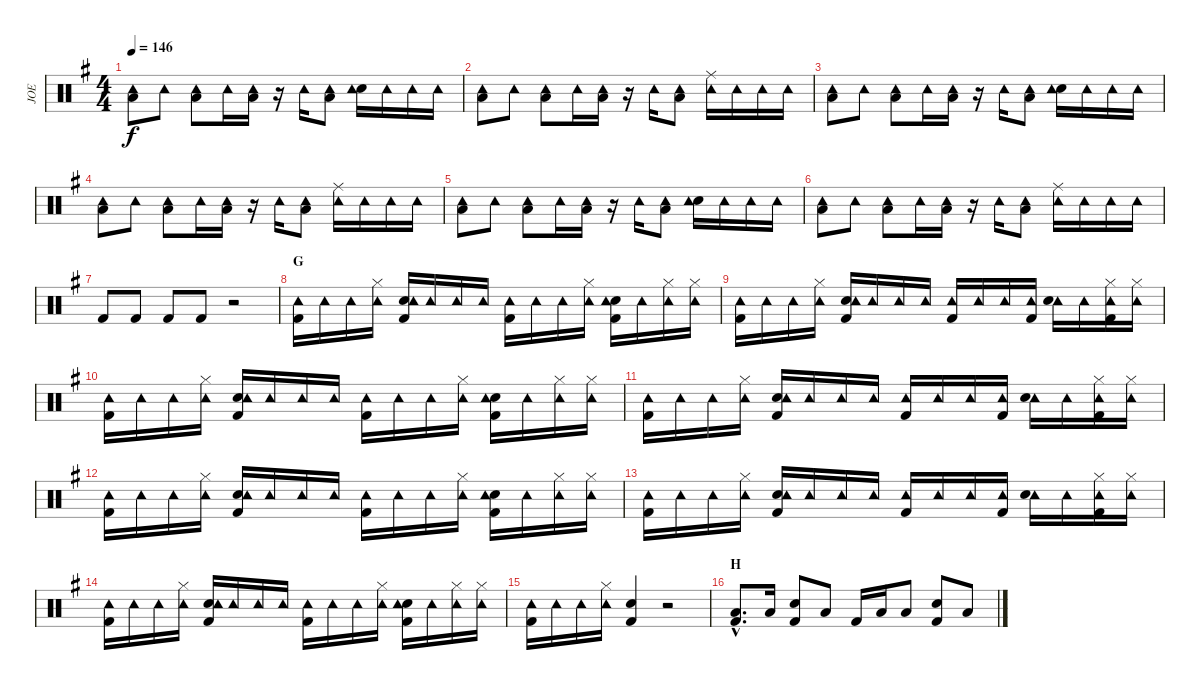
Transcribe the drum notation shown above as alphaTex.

\track ("JOE" "JOE") {instrument percussion}
\staff {score}
\articulation defaults
\ts (4 4)
\tempo 146
\clef neutral
\ks eminor
("Tambourine (hit)" "Low Floor Tom (hit)").8{dy f} "Tambourine (hit)".8 ("Tambourine (hit)" "Low Floor Tom (hit)").8 "Tambourine (hit)".16 ("Tambourine (hit)" "Low Tom (hit)").16 r.16 "Tambourine (hit)".16 ("Tambourine (hit)" "Low Floor Tom (hit)").8 ("Snare (hit) 2" "Tambourine (hit)").16 "Tambourine (hit)".16 "Tambourine (hit)".16 "Tambourine (hit)".16 |
("Tambourine (hit)" "Low Floor Tom (hit)").8 "Tambourine (hit)".8 ("Tambourine (hit)" "Low Floor Tom (hit)").8 "Tambourine (hit)".16 ("Tambourine (hit)" "Low Tom (hit)").16 r.16 "Tambourine (hit)".16 ("Tambourine (hit)" "Low Floor Tom (hit)").8 ("Ride (middle)" "Tambourine (hit)").16 "Tambourine (hit)".16 "Tambourine (hit)".16 "Tambourine (hit)".16 |
("Tambourine (hit)" "Low Floor Tom (hit)").8 "Tambourine (hit)".8 ("Tambourine (hit)" "Low Floor Tom (hit)").8 "Tambourine (hit)".16 ("Tambourine (hit)" "Low Tom (hit)").16 r.16 "Tambourine (hit)".16 ("Tambourine (hit)" "Low Floor Tom (hit)").8 ("Snare (hit) 2" "Tambourine (hit)").16 "Tambourine (hit)".16 "Tambourine (hit)".16 "Tambourine (hit)".16 |
("Tambourine (hit)" "Low Floor Tom (hit)").8 "Tambourine (hit)".8 ("Tambourine (hit)" "Low Floor Tom (hit)").8 "Tambourine (hit)".16 ("Tambourine (hit)" "Low Tom (hit)").16 r.16 "Tambourine (hit)".16 ("Tambourine (hit)" "Low Floor Tom (hit)").8 ("Ride (middle)" "Tambourine (hit)").16 "Tambourine (hit)".16 "Tambourine (hit)".16 "Tambourine (hit)".16 |
("Tambourine (hit)" "Low Floor Tom (hit)").8 "Tambourine (hit)".8 ("Tambourine (hit)" "Low Floor Tom (hit)").8 "Tambourine (hit)".16 ("Tambourine (hit)" "Low Tom (hit)").16 r.16 "Tambourine (hit)".16 ("Tambourine (hit)" "Low Floor Tom (hit)").8 ("Snare (hit) 2" "Tambourine (hit)").16 "Tambourine (hit)".16 "Tambourine (hit)".16 "Tambourine (hit)".16 |
("Tambourine (hit)" "Low Floor Tom (hit)").8 "Tambourine (hit)".8 ("Tambourine (hit)" "Low Floor Tom (hit)").8 "Tambourine (hit)".16 ("Tambourine (hit)" "Low Tom (hit)").16 r.16 "Tambourine (hit)".16 ("Tambourine (hit)" "Low Floor Tom (hit)").8 ("Ride (middle)" "Tambourine (hit)").16 "Tambourine (hit)".16 "Tambourine (hit)".16 "Tambourine (hit)".16 |
"Kick (hit) 2".8 "Kick (hit) 2".8 "Kick (hit) 2".8 "Kick (hit) 2".8 r.2 |
\section ("" "G")
("Tambourine (hit)" "Kick (hit) 2").16 "Tambourine (hit)".16 "Tambourine (hit)".16 ("Hi-Hat (closed)" "Tambourine (hit)").16 ("Snare (hit) 2" "Tambourine (hit)" "Kick (hit) 2").16 "Tambourine (hit)".16 "Tambourine (hit)".16 "Tambourine (hit)".16 ("Tambourine (hit)" "Kick (hit) 2").16 "Tambourine (hit)".16 "Tambourine (hit)".16 ("Hi-Hat (closed)" "Tambourine (hit)").16 ("Snare (hit) 2" "Tambourine (hit)" "Kick (hit) 2").16 "Tambourine (hit)".16 ("Hi-Hat (closed)" "Tambourine (hit)").16 ("Hi-Hat (closed)" "Tambourine (hit)").16 |
("Tambourine (hit)" "Kick (hit) 2").16 "Tambourine (hit)".16 "Tambourine (hit)".16 ("Hi-Hat (closed)" "Tambourine (hit)").16 ("Snare (hit) 2" "Tambourine (hit)" "Kick (hit) 2").16 "Tambourine (hit)".16 "Tambourine (hit)".16 "Tambourine (hit)".16 ("Tambourine (hit)" "Kick (hit) 2").16 "Tambourine (hit)".16 "Tambourine (hit)".16 ("Tambourine (hit)" "Kick (hit) 2").16 ("Tambourine (hit)" "Snare (hit) 2").16 "Tambourine (hit)".16 ("Hi-Hat (closed)" "Tambourine (hit)" "Kick (hit) 2").16 ("Hi-Hat (closed)" "Tambourine (hit)").16 |
("Tambourine (hit)" "Kick (hit) 2").16 "Tambourine (hit)".16 "Tambourine (hit)".16 ("Hi-Hat (closed)" "Tambourine (hit)").16 ("Snare (hit) 2" "Tambourine (hit)" "Kick (hit) 2").16 "Tambourine (hit)".16 "Tambourine (hit)".16 "Tambourine (hit)".16 ("Tambourine (hit)" "Kick (hit) 2").16 "Tambourine (hit)".16 "Tambourine (hit)".16 ("Hi-Hat (closed)" "Tambourine (hit)").16 ("Snare (hit) 2" "Tambourine (hit)" "Kick (hit) 2").16 "Tambourine (hit)".16 ("Hi-Hat (closed)" "Tambourine (hit)").16 ("Hi-Hat (closed)" "Tambourine (hit)").16 |
("Tambourine (hit)" "Kick (hit) 2").16 "Tambourine (hit)".16 "Tambourine (hit)".16 ("Hi-Hat (closed)" "Tambourine (hit)").16 ("Snare (hit) 2" "Tambourine (hit)" "Kick (hit) 2").16 "Tambourine (hit)".16 "Tambourine (hit)".16 "Tambourine (hit)".16 ("Tambourine (hit)" "Kick (hit) 2").16 "Tambourine (hit)".16 "Tambourine (hit)".16 ("Tambourine (hit)" "Kick (hit) 2").16 ("Tambourine (hit)" "Snare (hit) 2").16 "Tambourine (hit)".16 ("Hi-Hat (closed)" "Tambourine (hit)" "Kick (hit) 2").16 ("Hi-Hat (closed)" "Tambourine (hit)").16 |
("Tambourine (hit)" "Kick (hit) 2").16 "Tambourine (hit)".16 "Tambourine (hit)".16 ("Hi-Hat (closed)" "Tambourine (hit)").16 ("Snare (hit) 2" "Tambourine (hit)" "Kick (hit) 2").16 "Tambourine (hit)".16 "Tambourine (hit)".16 "Tambourine (hit)".16 ("Tambourine (hit)" "Kick (hit) 2").16 "Tambourine (hit)".16 "Tambourine (hit)".16 ("Hi-Hat (closed)" "Tambourine (hit)").16 ("Snare (hit) 2" "Tambourine (hit)" "Kick (hit) 2").16 "Tambourine (hit)".16 ("Hi-Hat (closed)" "Tambourine (hit)").16 ("Hi-Hat (closed)" "Tambourine (hit)").16 |
("Tambourine (hit)" "Kick (hit) 2").16 "Tambourine (hit)".16 "Tambourine (hit)".16 ("Hi-Hat (closed)" "Tambourine (hit)").16 ("Snare (hit) 2" "Tambourine (hit)" "Kick (hit) 2").16 "Tambourine (hit)".16 "Tambourine (hit)".16 "Tambourine (hit)".16 ("Tambourine (hit)" "Kick (hit) 2").16 "Tambourine (hit)".16 "Tambourine (hit)".16 ("Tambourine (hit)" "Kick (hit) 2").16 ("Tambourine (hit)" "Snare (hit) 2").16 "Tambourine (hit)".16 ("Hi-Hat (closed)" "Tambourine (hit)" "Kick (hit) 2").16 ("Hi-Hat (closed)" "Tambourine (hit)").16 |
("Tambourine (hit)" "Kick (hit) 2").16 "Tambourine (hit)".16 "Tambourine (hit)".16 ("Hi-Hat (closed)" "Tambourine (hit)").16 ("Snare (hit) 2" "Tambourine (hit)" "Kick (hit) 2").16 "Tambourine (hit)".16 "Tambourine (hit)".16 "Tambourine (hit)".16 ("Tambourine (hit)" "Kick (hit) 2").16 "Tambourine (hit)".16 "Tambourine (hit)".16 ("Hi-Hat (closed)" "Tambourine (hit)").16 ("Snare (hit) 2" "Tambourine (hit)" "Kick (hit) 2").16 "Tambourine (hit)".16 ("Hi-Hat (closed)" "Tambourine (hit)").16 ("Hi-Hat (closed)" "Tambourine (hit)").16 |
("Tambourine (hit)" "Kick (hit) 2").16 "Tambourine (hit)".16 "Tambourine (hit)".16 ("Hi-Hat (closed)" "Tambourine (hit)").16 ("Snare (hit) 2" "Kick (hit) 2").4 r.2 |
\section ("" "H")
("Low Floor Tom (hit)"{hac} "Kick (hit) 2"{hac}).8{d} "Low Floor Tom (hit)".16 ("Snare (hit) 2" "Kick (hit) 2").8 "Low Floor Tom (hit)".8 "Kick (hit) 2".16 "Low Floor Tom (hit)".16 "Low Floor Tom (hit)".8 ("Snare (hit) 2" "Kick (hit) 2").8 "Low Floor Tom (hit)".8
